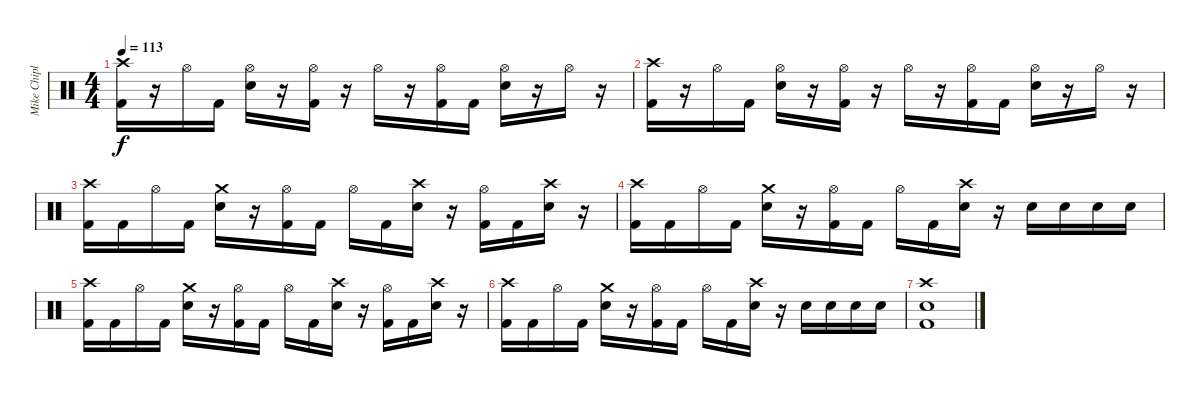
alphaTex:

\track ("Mike Chiplin" "Mike Chipl") {instrument percussion}
\staff {score}
\articulation defaults
\ts (4 4)
\tempo 113
\clef neutral
\ks c
("Crash high (hit)" "Kick (hit) 2").16{dy f} r.16 "Hi-Hat (open)".16 "Kick (hit) 2".16 ("Hi-Hat (open)" "Snare (hit) 2").16 r.16 ("Hi-Hat (open)" "Kick (hit) 2").16 r.16 "Hi-Hat (open)".16 r.16 ("Hi-Hat (open)" "Kick (hit) 2").16 "Kick (hit) 2".16 ("Hi-Hat (open)" "Snare (hit) 2").16 r.16 "Hi-Hat (open)".16 r.16 |
("Crash high (hit)" "Kick (hit) 2").16 r.16 "Hi-Hat (open)".16 "Kick (hit) 2".16 ("Hi-Hat (open)" "Snare (hit) 2").16 r.16 ("Hi-Hat (open)" "Kick (hit) 2").16 r.16 "Hi-Hat (open)".16 r.16 ("Hi-Hat (open)" "Kick (hit) 2").16 "Kick (hit) 2".16 ("Hi-Hat (open)" "Snare (hit) 2").16 r.16 "Hi-Hat (open)".16 r.16 |
("Crash high (hit)" "Kick (hit) 2").16 "Kick (hit) 2".16 "Hi-Hat (open)".16 "Kick (hit) 2".16 ("Crash medium (hit)" "Snare (hit) 2").16 r.16 ("Hi-Hat (open)" "Kick (hit) 2").16 "Kick (hit) 2".16 "Hi-Hat (open)".16 "Kick (hit) 2".16 ("Crash high (hit)" "Snare (hit) 2").16 r.16 ("Hi-Hat (open)" "Kick (hit) 2").16 "Kick (hit) 2".16 ("Crash high (hit)" "Snare (hit) 2").16 r.16 |
("Crash high (hit)" "Kick (hit) 2").16 "Kick (hit) 2".16 "Hi-Hat (open)".16 "Kick (hit) 2".16 ("Crash medium (hit)" "Snare (hit) 2").16 r.16 ("Hi-Hat (open)" "Kick (hit) 2").16 "Kick (hit) 2".16 "Hi-Hat (open)".16 "Kick (hit) 2".16 ("Crash high (hit)" "Snare (hit) 2").16 r.16 "Snare (hit) 2".16 "Snare (hit) 2".16 "Snare (hit) 2".16 "Snare (hit) 2".16 |
("Crash high (hit)" "Kick (hit) 2").16 "Kick (hit) 2".16 "Hi-Hat (open)".16 "Kick (hit) 2".16 ("Crash medium (hit)" "Snare (hit) 2").16 r.16 ("Hi-Hat (open)" "Kick (hit) 2").16 "Kick (hit) 2".16 "Hi-Hat (open)".16 "Kick (hit) 2".16 ("Crash high (hit)" "Snare (hit) 2").16 r.16 ("Hi-Hat (open)" "Kick (hit) 2").16 "Kick (hit) 2".16 ("Crash high (hit)" "Snare (hit) 2").16 r.16 |
("Crash high (hit)" "Kick (hit) 2").16 "Kick (hit) 2".16 "Hi-Hat (open)".16 "Kick (hit) 2".16 ("Crash medium (hit)" "Snare (hit) 2").16 r.16 ("Hi-Hat (open)" "Kick (hit) 2").16 "Kick (hit) 2".16 "Hi-Hat (open)".16 "Kick (hit) 2".16 ("Crash high (hit)" "Snare (hit) 2").16 r.16 "Snare (hit) 2".16 "Snare (hit) 2".16 "Snare (hit) 2".16 "Snare (hit) 2".16 |
("Crash high (hit)" "Snare (hit) 2" "Kick (hit) 2").1
